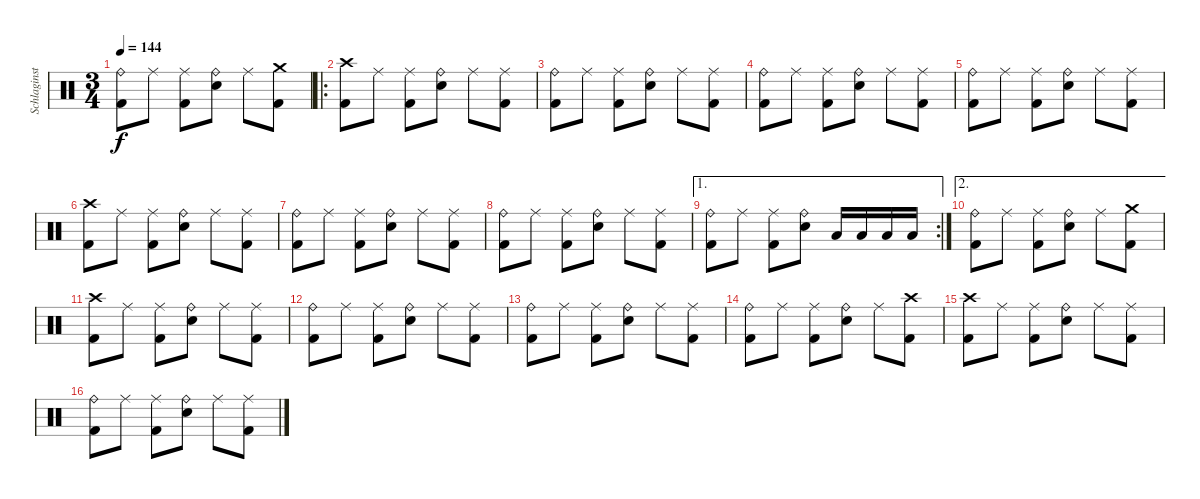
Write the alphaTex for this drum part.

\track ("Schlaginstrumente - Auswahl" "Schlaginst") {instrument percussion}
\staff {score}
\articulation defaults
\ts (3 4)
\tempo 144
\clef neutral
\ks c
("Ride (bell)" "Kick (hit) 2").8{dy f} "Ride (middle)".8 ("Ride (middle)" "Kick (hit) 2").8 ("Ride (bell)" "Snare (hit) 2").8 "Ride (middle)".8 ("Crash medium (hit)" "Kick (hit) 2").8 |
\ro
("Crash high (hit)" "Kick (hit) 2").8 "Ride (middle)".8 ("Ride (middle)" "Kick (hit) 2").8 ("Ride (bell)" "Snare (hit) 2").8 "Ride (middle)".8 ("Ride (middle)" "Kick (hit) 2").8 |
("Ride (bell)" "Kick (hit) 2").8 "Ride (middle)".8 ("Ride (middle)" "Kick (hit) 2").8 ("Ride (bell)" "Snare (hit) 2").8 "Ride (middle)".8 ("Ride (middle)" "Kick (hit) 2").8 |
("Ride (bell)" "Kick (hit) 2").8 "Ride (middle)".8 ("Ride (middle)" "Kick (hit) 2").8 ("Ride (bell)" "Snare (hit) 2").8 "Ride (middle)".8 ("Ride (middle)" "Kick (hit) 2").8 |
("Ride (bell)" "Kick (hit) 2").8 "Ride (middle)".8 ("Ride (middle)" "Kick (hit) 2").8 ("Ride (bell)" "Snare (hit) 2").8 "Ride (middle)".8 ("Ride (middle)" "Kick (hit) 2").8 |
("Crash high (hit)" "Kick (hit) 2").8 "Ride (middle)".8 ("Ride (middle)" "Kick (hit) 2").8 ("Ride (bell)" "Snare (hit) 2").8 "Ride (middle)".8 ("Ride (middle)" "Kick (hit) 2").8 |
("Ride (bell)" "Kick (hit) 2").8 "Ride (middle)".8 ("Ride (middle)" "Kick (hit) 2").8 ("Ride (bell)" "Snare (hit) 2").8 "Ride (middle)".8 ("Ride (middle)" "Kick (hit) 2").8 |
("Ride (bell)" "Kick (hit) 2").8 "Ride (middle)".8 ("Ride (middle)" "Kick (hit) 2").8 ("Ride (bell)" "Snare (hit) 2").8 "Ride (middle)".8 ("Ride (middle)" "Kick (hit) 2").8 |
\ae 1
\rc 2
("Ride (bell)" "Kick (hit) 2").8 "Ride (middle)".8 ("Ride (middle)" "Kick (hit) 2").8 ("Ride (bell)" "Snare (hit) 2").8 "Low Tom (hit)".16 "Low Tom (hit)".16 "Low Tom (hit)".16 "Low Tom (hit)".16 |
\ae 2
("Ride (bell)" "Kick (hit) 2").8 "Ride (middle)".8 ("Ride (middle)" "Kick (hit) 2").8 ("Ride (bell)" "Snare (hit) 2").8 "Ride (middle)".8 ("Crash medium (hit)" "Kick (hit) 2").8 |
("Crash high (hit)" "Kick (hit) 2").8 "Ride (middle)".8 ("Ride (middle)" "Kick (hit) 2").8 ("Ride (bell)" "Snare (hit) 2").8 "Ride (middle)".8 ("Ride (middle)" "Kick (hit) 2").8 |
("Ride (bell)" "Kick (hit) 2").8 "Ride (middle)".8 ("Ride (middle)" "Kick (hit) 2").8 ("Ride (bell)" "Snare (hit) 2").8 "Ride (middle)".8 ("Ride (middle)" "Kick (hit) 2").8 |
("Ride (bell)" "Kick (hit) 2").8 "Ride (middle)".8 ("Ride (middle)" "Kick (hit) 2").8 ("Ride (bell)" "Snare (hit) 2").8 "Ride (middle)".8 ("Ride (middle)" "Kick (hit) 2").8 |
("Ride (bell)" "Kick (hit) 2").8 "Ride (middle)".8 ("Ride (middle)" "Kick (hit) 2").8 ("Ride (bell)" "Snare (hit) 2").8 "Ride (middle)".8 ("Crash high (hit)" "Kick (hit) 2").8 |
("Crash high (hit)" "Kick (hit) 2").8 "Ride (middle)".8 ("Ride (middle)" "Kick (hit) 2").8 ("Ride (bell)" "Snare (hit) 2").8 "Ride (middle)".8 ("Ride (middle)" "Kick (hit) 2").8 |
("Ride (bell)" "Kick (hit) 2").8 "Ride (middle)".8 ("Ride (middle)" "Kick (hit) 2").8 ("Ride (bell)" "Snare (hit) 2").8 "Ride (middle)".8 ("Ride (middle)" "Kick (hit) 2").8
